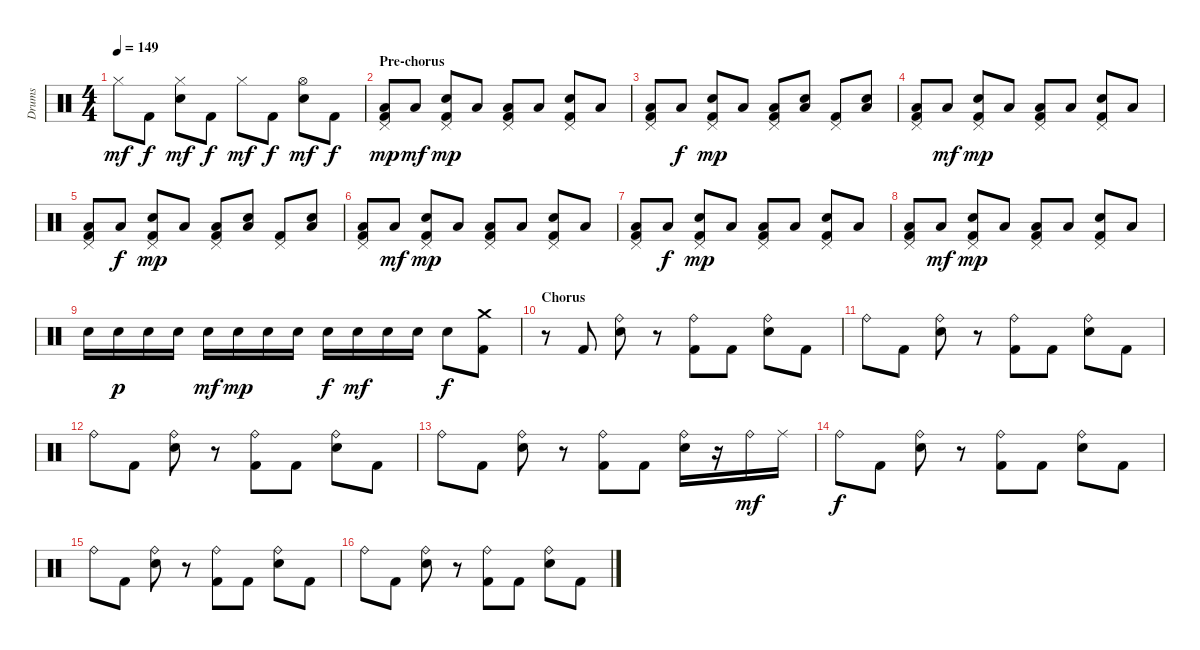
\track ("Drums" "Drums") {instrument percussion}
\staff {score}
\articulation defaults
\ts (4 4)
\tempo 149
\clef neutral
\ks c "Hi-Hat (closed)".8{dy mf} "Kick (hit) 2".8{dy f}
("Hi-Hat (closed)" "Snare (hit) 2").8{dy mf} "Kick (hit) 2".8{dy f} "Hi-Hat (closed)".8{dy mf} "Kick (hit) 2".8{dy f} ("Hi-Hat (open)" "Snare (hit) 2").8{dy mf} "Kick (hit) 2".8{dy f} |
\section ("" "Pre-chorus")
("Pedal Hi-Hat (hit)" "Low Floor Tom (hit)" "Kick (hit) 2").8{dy mp} "Low Floor Tom (hit)".8{dy mf} ("Pedal Hi-Hat (hit)" "Snare (hit) 2" "Kick (hit) 2").8{dy mp} "Low Floor Tom (hit)".8 ("Pedal Hi-Hat (hit)" "Low Floor Tom (hit)" "Kick (hit) 2").8 "Low Floor Tom (hit)".8 ("Pedal Hi-Hat (hit)" "Snare (hit) 2" "Kick (hit) 2").8 "Low Floor Tom (hit)".8 |
("Pedal Hi-Hat (hit)" "Low Floor Tom (hit)" "Kick (hit) 2").8 "Low Floor Tom (hit)".8{dy f} ("Pedal Hi-Hat (hit)" "Snare (hit) 2" "Kick (hit) 2").8{dy mp} "Low Floor Tom (hit)".8 ("Pedal Hi-Hat (hit)" "Low Floor Tom (hit)" "Kick (hit) 2").8 ("Snare (hit) 2" "Low Floor Tom (hit)").8 ("Pedal Hi-Hat (hit)" "Kick (hit) 2").8 ("Snare (hit) 2" "Low Floor Tom (hit)").8 |
("Pedal Hi-Hat (hit)" "Low Floor Tom (hit)" "Kick (hit) 2").8 "Low Floor Tom (hit)".8{dy mf} ("Pedal Hi-Hat (hit)" "Snare (hit) 2" "Kick (hit) 2").8{dy mp} "Low Floor Tom (hit)".8 ("Pedal Hi-Hat (hit)" "Low Floor Tom (hit)" "Kick (hit) 2").8 "Low Floor Tom (hit)".8 ("Pedal Hi-Hat (hit)" "Snare (hit) 2" "Kick (hit) 2").8 "Low Floor Tom (hit)".8 |
("Pedal Hi-Hat (hit)" "Low Floor Tom (hit)" "Kick (hit) 2").8 "Low Floor Tom (hit)".8{dy f} ("Pedal Hi-Hat (hit)" "Snare (hit) 2" "Kick (hit) 2").8{dy mp} "Low Floor Tom (hit)".8 ("Pedal Hi-Hat (hit)" "Low Floor Tom (hit)" "Kick (hit) 2").8 ("Snare (hit) 2" "Low Floor Tom (hit)").8 ("Pedal Hi-Hat (hit)" "Kick (hit) 2").8 ("Snare (hit) 2" "Low Floor Tom (hit)").8 |
("Pedal Hi-Hat (hit)" "Low Floor Tom (hit)" "Kick (hit) 2").8 "Low Floor Tom (hit)".8{dy mf} ("Pedal Hi-Hat (hit)" "Snare (hit) 2" "Kick (hit) 2").8{dy mp} "Low Floor Tom (hit)".8 ("Pedal Hi-Hat (hit)" "Low Floor Tom (hit)" "Kick (hit) 2").8 "Low Floor Tom (hit)".8 ("Pedal Hi-Hat (hit)" "Snare (hit) 2" "Kick (hit) 2").8 "Low Floor Tom (hit)".8 |
("Pedal Hi-Hat (hit)" "Low Floor Tom (hit)" "Kick (hit) 2").8 "Low Floor Tom (hit)".8{dy f} ("Pedal Hi-Hat (hit)" "Snare (hit) 2" "Kick (hit) 2").8{dy mp} "Low Floor Tom (hit)".8 ("Pedal Hi-Hat (hit)" "Low Floor Tom (hit)" "Kick (hit) 2").8 "Low Floor Tom (hit)".8 ("Pedal Hi-Hat (hit)" "Snare (hit) 2" "Kick (hit) 2").8 "Low Floor Tom (hit)".8 |
("Pedal Hi-Hat (hit)" "Low Floor Tom (hit)" "Kick (hit) 2").8 "Low Floor Tom (hit)".8{dy mf} ("Pedal Hi-Hat (hit)" "Snare (hit) 2" "Kick (hit) 2").8{dy mp} "Low Floor Tom (hit)".8 ("Pedal Hi-Hat (hit)" "Low Floor Tom (hit)" "Kick (hit) 2").8 "Low Floor Tom (hit)".8 ("Pedal Hi-Hat (hit)" "Snare (hit) 2" "Kick (hit) 2").8 "Low Floor Tom (hit)".8 |
"Snare (hit) 2".16 "Snare (hit) 2".16{dy p} "Snare (hit) 2".16 "Snare (hit) 2".16 "Snare (hit) 2".16{dy mf} "Snare (hit) 2".16{dy mp} "Snare (hit) 2".16 "Snare (hit) 2".16 "Snare (hit) 2".16{dy f} "Snare (hit) 2".16{dy mf} "Snare (hit) 2".16 "Snare (hit) 2".16 "Snare (hit) 2".8{dy f} ("Crash medium (hit)" "Kick (hit) 2").8 |
\section ("" "Chorus")
r.8 "Kick (hit) 2".8 ("Ride (bell)" "Snare (hit) 2").8 r.8 ("Ride (bell)" "Kick (hit) 2").8 "Kick (hit) 2".8 ("Ride (bell)" "Snare (hit) 2").8 "Kick (hit) 2".8 |
"Ride (bell)".8 "Kick (hit) 2".8 ("Ride (bell)" "Snare (hit) 2").8 r.8 ("Ride (bell)" "Kick (hit) 2").8 "Kick (hit) 2".8 ("Ride (bell)" "Snare (hit) 2").8 "Kick (hit) 2".8 |
"Ride (bell)".8 "Kick (hit) 2".8 ("Ride (bell)" "Snare (hit) 2").8 r.8 ("Ride (bell)" "Kick (hit) 2").8 "Kick (hit) 2".8 ("Ride (bell)" "Snare (hit) 2").8 "Kick (hit) 2".8 |
"Ride (bell)".8 "Kick (hit) 2".8 ("Ride (bell)" "Snare (hit) 2").8 r.8 ("Ride (bell)" "Kick (hit) 2").8 "Kick (hit) 2".8 ("Ride (bell)" "Snare (hit) 2").16 r.16 "Ride (bell)".16{dy mf} "Ride (middle)".16 |
"Ride (bell)".8{dy f} "Kick (hit) 2".8 ("Ride (bell)" "Snare (hit) 2").8 r.8 ("Ride (bell)" "Kick (hit) 2").8 "Kick (hit) 2".8 ("Ride (bell)" "Snare (hit) 2").8 "Kick (hit) 2".8 |
"Ride (bell)".8 "Kick (hit) 2".8 ("Ride (bell)" "Snare (hit) 2").8 r.8 ("Ride (bell)" "Kick (hit) 2").8 "Kick (hit) 2".8 ("Ride (bell)" "Snare (hit) 2").8 "Kick (hit) 2".8 |
"Ride (bell)".8 "Kick (hit) 2".8 ("Ride (bell)" "Snare (hit) 2").8 r.8 ("Ride (bell)" "Kick (hit) 2").8 "Kick (hit) 2".8 ("Ride (bell)" "Snare (hit) 2").8 "Kick (hit) 2".8
